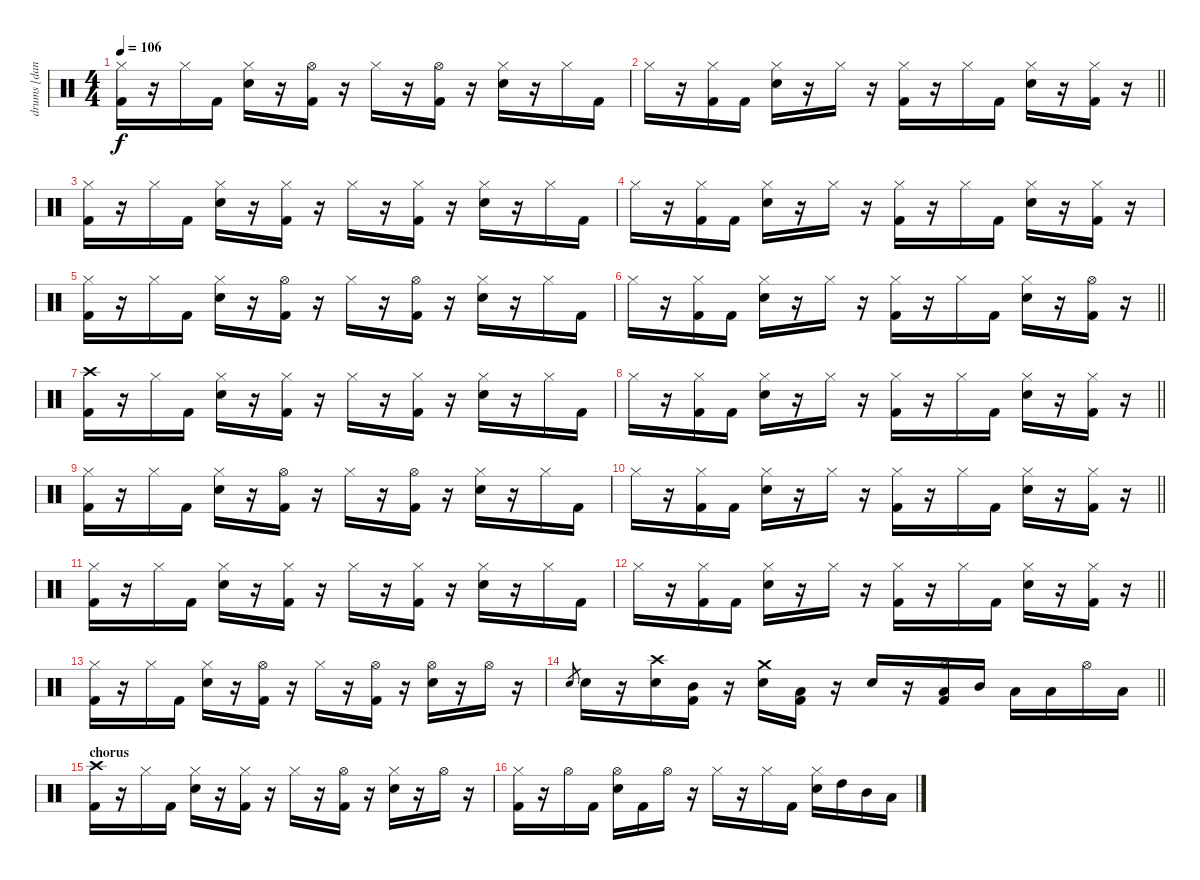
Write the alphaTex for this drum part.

\track ("drums [danny carey]" "drums [dan") {instrument percussion}
\staff {score}
\articulation defaults
\ts (4 4)
\tempo 106
\clef neutral
\ks c
("Hi-Hat (closed)" "Kick (hit) 2").16{dy f} r.16 "Hi-Hat (closed)".16 "Kick (hit) 2".16 ("Hi-Hat (closed)" "Electric Snare (hit)").16 r.16 ("Hi-Hat (open)" "Kick (hit) 2").16 r.16 "Hi-Hat (closed)".16 r.16 ("Hi-Hat (open)" "Kick (hit) 2").16 r.16 ("Hi-Hat (closed)" "Electric Snare (hit)").16 r.16 "Hi-Hat (closed)".16 "Kick (hit) 2".16 |
\barLineRight lightlight "Hi-Hat (closed)".16
r.16 ("Hi-Hat (closed)" "Kick (hit) 2").16 "Kick (hit) 2".16 ("Hi-Hat (closed)" "Electric Snare (hit)").16 r.16 "Hi-Hat (closed)".16 r.16 ("Hi-Hat (closed)" "Kick (hit) 2").16 r.16 "Hi-Hat (closed)".16 "Kick (hit) 2".16 ("Hi-Hat (closed)" "Electric Snare (hit)").16 r.16 ("Hi-Hat (closed)" "Kick (hit) 2").16 r.16 |
("Hi-Hat (closed)" "Kick (hit) 2").16 r.16 "Hi-Hat (closed)".16 "Kick (hit) 2".16 ("Hi-Hat (closed)" "Electric Snare (hit)").16 r.16 ("Hi-Hat (closed)" "Kick (hit) 2").16 r.16 "Hi-Hat (closed)".16 r.16 ("Hi-Hat (closed)" "Kick (hit) 2").16 r.16 ("Hi-Hat (closed)" "Electric Snare (hit)").16 r.16 "Hi-Hat (closed)".16 "Kick (hit) 2".16 |
"Hi-Hat (closed)".16 r.16 ("Hi-Hat (closed)" "Kick (hit) 2").16 "Kick (hit) 2".16 ("Hi-Hat (closed)" "Electric Snare (hit)").16 r.16 "Hi-Hat (closed)".16 r.16 ("Hi-Hat (closed)" "Kick (hit) 2").16 r.16 "Hi-Hat (closed)".16 "Kick (hit) 2".16 ("Hi-Hat (closed)" "Electric Snare (hit)").16 r.16 ("Hi-Hat (closed)" "Kick (hit) 2").16 r.16 |
("Hi-Hat (closed)" "Kick (hit) 2").16 r.16 "Hi-Hat (closed)".16 "Kick (hit) 2".16 ("Hi-Hat (closed)" "Electric Snare (hit)").16 r.16 ("Hi-Hat (open)" "Kick (hit) 2").16 r.16 "Hi-Hat (closed)".16 r.16 ("Hi-Hat (open)" "Kick (hit) 2").16 r.16 ("Hi-Hat (closed)" "Electric Snare (hit)").16 r.16 "Hi-Hat (closed)".16 "Kick (hit) 2".16 |
\barLineRight lightlight "Hi-Hat (closed)".16
r.16 ("Hi-Hat (closed)" "Kick (hit) 2").16 "Kick (hit) 2".16 ("Hi-Hat (closed)" "Electric Snare (hit)").16 r.16 "Hi-Hat (closed)".16 r.16 ("Hi-Hat (closed)" "Kick (hit) 2").16 r.16 "Hi-Hat (closed)".16 "Kick (hit) 2".16 ("Hi-Hat (closed)" "Electric Snare (hit)").16 r.16 ("Hi-Hat (open)" "Kick (hit) 2").16 r.16 |
("Crash high (hit)" "Kick (hit) 2").16 r.16 "Hi-Hat (closed)".16 "Kick (hit) 2".16 ("Hi-Hat (closed)" "Electric Snare (hit)").16 r.16 ("Hi-Hat (closed)" "Kick (hit) 2").16 r.16 "Hi-Hat (closed)".16 r.16 ("Hi-Hat (closed)" "Kick (hit) 2").16 r.16 ("Hi-Hat (closed)" "Electric Snare (hit)").16 r.16 "Hi-Hat (closed)".16 "Kick (hit) 2".16 |
\barLineRight lightlight "Hi-Hat (closed)".16
r.16 ("Hi-Hat (closed)" "Kick (hit) 2").16 "Kick (hit) 2".16 ("Hi-Hat (closed)" "Electric Snare (hit)").16 r.16 "Hi-Hat (closed)".16 r.16 ("Hi-Hat (closed)" "Kick (hit) 2").16 r.16 "Hi-Hat (closed)".16 "Kick (hit) 2".16 ("Hi-Hat (closed)" "Electric Snare (hit)").16 r.16 ("Hi-Hat (closed)" "Kick (hit) 2").16 r.16 |
("Hi-Hat (closed)" "Kick (hit) 2").16 r.16 "Hi-Hat (closed)".16 "Kick (hit) 2".16 ("Hi-Hat (closed)" "Electric Snare (hit)").16 r.16 ("Hi-Hat (open)" "Kick (hit) 2").16 r.16 "Hi-Hat (closed)".16 r.16 ("Hi-Hat (open)" "Kick (hit) 2").16 r.16 ("Hi-Hat (closed)" "Electric Snare (hit)").16 r.16 "Hi-Hat (closed)".16 "Kick (hit) 2".16 |
\barLineRight lightlight "Hi-Hat (closed)".16
r.16 ("Hi-Hat (closed)" "Kick (hit) 2").16 "Kick (hit) 2".16 ("Hi-Hat (closed)" "Electric Snare (hit)").16 r.16 "Hi-Hat (closed)".16 r.16 ("Hi-Hat (closed)" "Kick (hit) 2").16 r.16 "Hi-Hat (closed)".16 "Kick (hit) 2".16 ("Hi-Hat (closed)" "Electric Snare (hit)").16 r.16 ("Hi-Hat (closed)" "Kick (hit) 2").16 r.16 |
("Hi-Hat (closed)" "Kick (hit) 2").16 r.16 "Hi-Hat (closed)".16 "Kick (hit) 2".16 ("Hi-Hat (closed)" "Electric Snare (hit)").16 r.16 ("Hi-Hat (closed)" "Kick (hit) 2").16 r.16 "Hi-Hat (closed)".16 r.16 ("Hi-Hat (closed)" "Kick (hit) 2").16 r.16 ("Hi-Hat (closed)" "Electric Snare (hit)").16 r.16 "Hi-Hat (closed)".16 "Kick (hit) 2".16 |
\barLineRight lightlight "Hi-Hat (closed)".16
r.16 ("Hi-Hat (closed)" "Kick (hit) 2").16 "Kick (hit) 2".16 ("Hi-Hat (closed)" "Electric Snare (hit)").16 r.16 "Hi-Hat (closed)".16 r.16 ("Hi-Hat (closed)" "Kick (hit) 2").16 r.16 "Hi-Hat (closed)".16 "Kick (hit) 2".16 ("Hi-Hat (closed)" "Electric Snare (hit)").16 r.16 ("Hi-Hat (closed)" "Kick (hit) 2").16 r.16 |
("Hi-Hat (closed)" "Kick (hit) 2").16 r.16 "Hi-Hat (closed)".16 "Kick (hit) 2".16 ("Hi-Hat (closed)" "Electric Snare (hit)").16 r.16 ("Hi-Hat (open)" "Kick (hit) 2").16 r.16 "Hi-Hat (closed)".16 r.16 ("Hi-Hat (open)" "Kick (hit) 2").16 r.16 ("Hi-Hat (open)" "Electric Snare (hit)").16 r.16 "Hi-Hat (open)".16 r.16 |
\barLineRight lightlight "Electric Snare (hit)".8{gr} "Electric Snare (hit)".16
r.16 ("Crash high (hit)" "Electric Snare (hit)").16 ("Mid Tom (hit)" "Kick (hit) 2").16 r.16 ("Crash medium (hit)" "Electric Snare (hit)").16 ("Low Tom (hit)" "Kick (hit) 2").16 r.16 "Electric Snare (hit)".16 r.16 ("Hi-Hat (open)" "Low Tom (hit)" "Kick (hit) 2").16 "Mid Tom (hit)".16 "Low Tom (hit)".16 "Low Tom (hit)".16 "Hi-Hat (open)".16 "Low Tom (hit)".16 |
\section ("" "chorus")
("Crash high (hit)" "Kick (hit) 2").16 r.16 "Hi-Hat (closed)".16 "Kick (hit) 2".16 ("Hi-Hat (closed)" "Electric Snare (hit)").16 r.16 ("Hi-Hat (closed)" "Kick (hit) 2").16 r.16 "Hi-Hat (closed)".16 r.16 ("Hi-Hat (open)" "Kick (hit) 2").16 r.16 ("Hi-Hat (closed)" "Electric Snare (hit)").16 r.16 "Hi-Hat (open)".16 r.16 |
("Hi-Hat (closed)" "Kick (hit) 2").16 r.16 "Hi-Hat (open)".16 "Kick (hit) 2".16 ("Hi-Hat (open)" "Electric Snare (hit)").16 "Kick (hit) 2".16 "Hi-Hat (open)".16 r.16 "Hi-Hat (closed)".16 r.16 "Hi-Hat (closed)".16 "Kick (hit) 2".16 ("Hi-Hat (closed)" "Electric Snare (hit)").16 "High Tom (hit)".16 "Mid Tom (hit)".16 "Low Tom (hit)".16
